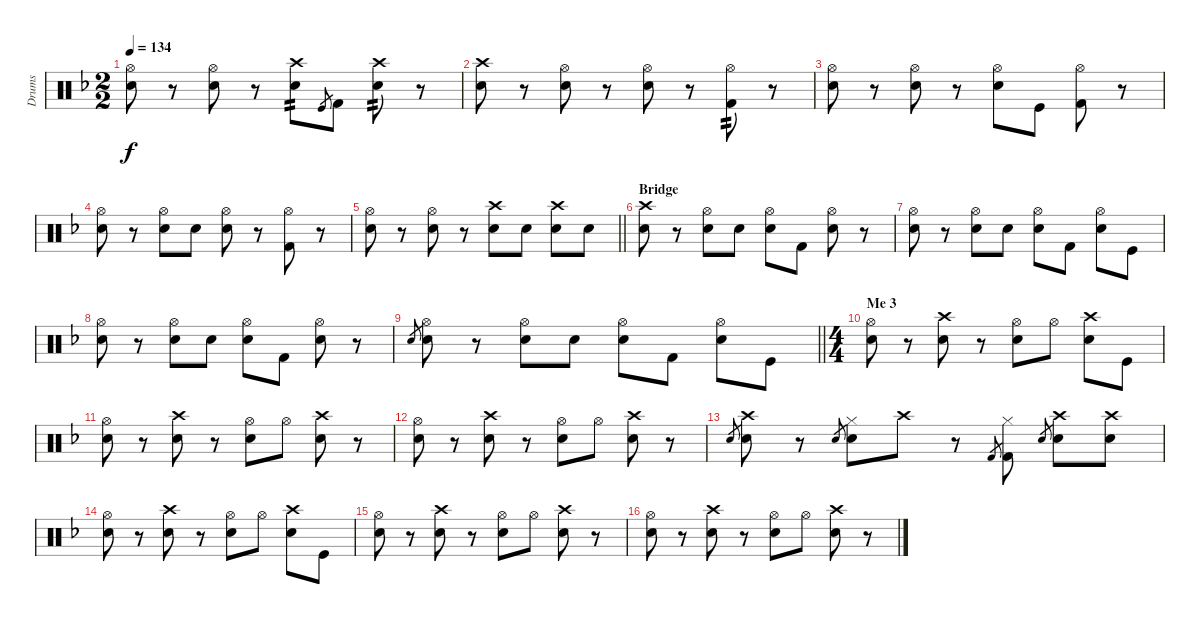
\track ("Drums" "Drums") {instrument percussion}
\staff {score}
\articulation defaults
\ts (2 2)
\tempo 134
\clef neutral
\ks f
("Snare (hit) 2" "Hi-Hat (open)").8{dy f} r.8 ("Snare (hit) 2" "Hi-Hat (open)").8 r.8 ("Electric Snare (hit)" "Crash high (hit)").8{tp 2} "Kick (hit)".8{gr} "Kick (hit) 2".8 ("Snare (hit) 2" "Crash high (hit)").8{tp 2} r.8 |
("Snare (hit) 2" "Crash high (hit)").8 r.8 ("Snare (hit) 2" "Hi-Hat (open)").8 r.8 ("Electric Snare (hit)" "Hi-Hat (open)").8 r.8 ("Kick (hit) 2" "Hi-Hat (open)").8{tp 2} r.8 |
("Snare (hit) 2" "Hi-Hat (open)").8 r.8 ("Snare (hit) 2" "Hi-Hat (open)").8 r.8 ("Electric Snare (hit)" "Hi-Hat (open)").8 "Kick (hit)".8 ("Kick (hit) 2" "Hi-Hat (open)").8 r.8 |
("Snare (hit) 2" "Hi-Hat (open)").8 r.8 ("Snare (hit) 2" "Hi-Hat (open)").8 "Snare (hit) 2".8 ("Electric Snare (hit)" "Hi-Hat (open)").8 r.8 ("Kick (hit) 2" "Hi-Hat (open)").8 r.8 |
\barLineRight lightlight
("Snare (hit) 2" "Hi-Hat (open)").8 r.8 ("Snare (hit) 2" "Hi-Hat (open)").8 r.8 ("Snare (hit) 2" "Crash high (hit)").8 "Snare (hit) 2".8 ("Electric Snare (hit)" "Crash high (hit)").8 "Electric Snare (hit)".8 |
\section ("" "Bridge")
("Snare (hit) 2" "Crash high (hit)").8 r.8 ("Snare (hit) 2" "Hi-Hat (open)").8 "Electric Snare (hit)".8 ("Snare (hit) 2" "Hi-Hat (open)").8 "Kick (hit) 2".8 ("Snare (hit) 2" "Hi-Hat (open)").8 r.8 |
("Snare (hit) 2" "Hi-Hat (open)").8 r.8 ("Snare (hit) 2" "Hi-Hat (open)").8 "Electric Snare (hit)".8 ("Snare (hit) 2" "Hi-Hat (open)").8 "Kick (hit) 2".8 ("Snare (hit) 2" "Hi-Hat (open)").8 "Kick (hit)".8 |
("Snare (hit) 2" "Hi-Hat (open)").8 r.8 ("Snare (hit) 2" "Hi-Hat (open)").8 "Electric Snare (hit)".8 ("Snare (hit) 2" "Hi-Hat (open)").8 "Kick (hit) 2".8 ("Snare (hit) 2" "Hi-Hat (open)").8 r.8 |
\barLineRight lightlight "Snare (hit) 2".8{gr}
("Snare (hit) 2" "Hi-Hat (open)").8 r.8 ("Snare (hit) 2" "Hi-Hat (open)").8 "Electric Snare (hit)".8 ("Snare (hit) 2" "Hi-Hat (open)").8 "Kick (hit) 2".8 ("Snare (hit) 2" "Hi-Hat (open)").8 "Kick (hit)".8 |
\ts (4 4)
\section ("" "Me 3")
("Snare (hit) 2" "Hi-Hat (open)").8 r.8 ("Electric Snare (hit)" "Crash high (hit)").8 r.8 ("Snare (hit) 2" "Hi-Hat (open)").8 "Hi-Hat (open)".8 ("Electric Snare (hit)" "Crash high (hit)").8 "Kick (hit)".8 |
("Snare (hit) 2" "Hi-Hat (open)").8 r.8 ("Electric Snare (hit)" "Crash high (hit)").8 r.8 ("Snare (hit) 2" "Hi-Hat (open)").8 "Hi-Hat (open)".8 ("Electric Snare (hit)" "Crash high (hit)").8 r.8 |
("Snare (hit) 2" "Hi-Hat (open)").8 r.8 ("Electric Snare (hit)" "Crash high (hit)").8 r.8 ("Snare (hit) 2" "Hi-Hat (open)").8 "Hi-Hat (open)".8 ("Electric Snare (hit)" "Crash high (hit)").8 r.8 |
"Electric Snare (hit)".8{gr} ("Electric Snare (hit)" "Crash high (hit)").8 r.8 "Electric Snare (hit)".8{gr} ("Electric Snare (hit)" "Hi-Hat (closed)").8 "Crash high (hit)".8 r.8 "Kick (hit) 2".8{gr} ("Kick (hit) 2" "Hi-Hat (closed)").8 "Electric Snare (hit)".8{gr} ("Electric Snare (hit)" "Crash high (hit)").8 ("Electric Snare (hit)" "Crash high (hit)").8 |
("Snare (hit) 2" "Hi-Hat (open)").8 r.8 ("Electric Snare (hit)" "Crash high (hit)").8 r.8 ("Snare (hit) 2" "Hi-Hat (open)").8 "Hi-Hat (open)".8 ("Electric Snare (hit)" "Crash high (hit)").8 "Kick (hit)".8 |
("Snare (hit) 2" "Hi-Hat (open)").8 r.8 ("Electric Snare (hit)" "Crash high (hit)").8 r.8 ("Snare (hit) 2" "Hi-Hat (open)").8 "Hi-Hat (open)".8 ("Electric Snare (hit)" "Crash high (hit)").8 r.8 |
("Snare (hit) 2" "Hi-Hat (open)").8 r.8 ("Electric Snare (hit)" "Crash high (hit)").8 r.8 ("Snare (hit) 2" "Hi-Hat (open)").8 "Hi-Hat (open)".8 ("Electric Snare (hit)" "Crash high (hit)").8 r.8
